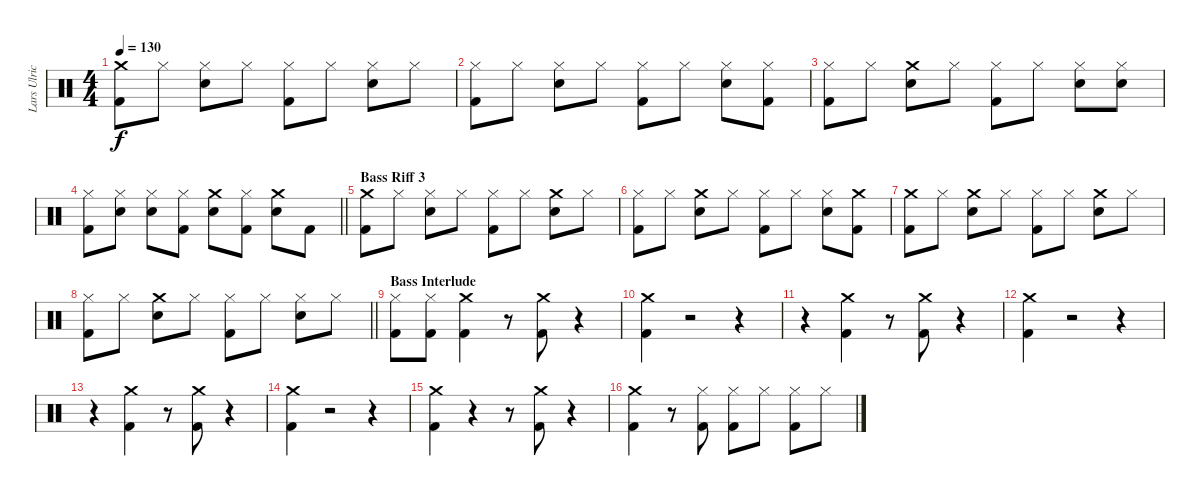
\track ("Lars Ulrich (Drums)" "Lars Ulric") {instrument percussion}
\staff {score}
\articulation defaults
\ts (4 4)
\tempo 130
\clef neutral
\ks c
("Crash medium (hit)" "Kick (hit) 2").8{dy f} "Hi-Hat (closed)".8 ("Snare (hit) 2" "Hi-Hat (closed)").8 "Hi-Hat (closed)".8 ("Kick (hit) 2" "Hi-Hat (closed)").8 "Hi-Hat (closed)".8 ("Snare (hit) 2" "Hi-Hat (closed)").8 "Hi-Hat (closed)".8 |
("Kick (hit) 2" "Hi-Hat (closed)").8 "Hi-Hat (closed)".8 ("Snare (hit) 2" "Hi-Hat (closed)").8 "Hi-Hat (closed)".8 ("Kick (hit) 2" "Hi-Hat (closed)").8 "Hi-Hat (closed)".8 ("Snare (hit) 2" "Hi-Hat (closed)").8 ("Kick (hit) 2" "Hi-Hat (closed)").8 |
("Kick (hit) 2" "Hi-Hat (closed)").8 "Hi-Hat (closed)".8 ("Crash medium (hit)" "Snare (hit) 2").8 "Hi-Hat (closed)".8 ("Kick (hit) 2" "Hi-Hat (closed)").8 "Hi-Hat (closed)".8 ("Snare (hit) 2" "Hi-Hat (closed)").8 ("Snare (hit) 2" "Hi-Hat (closed)").8 |
\barLineRight lightlight
("Kick (hit) 2" "Hi-Hat (closed)").8 ("Snare (hit) 2" "Hi-Hat (closed)").8 ("Snare (hit) 2" "Hi-Hat (closed)").8 ("Kick (hit) 2" "Hi-Hat (closed)").8 ("Crash medium (hit)" "Snare (hit) 2").8 ("Kick (hit) 2" "Hi-Hat (closed)").8 ("Crash medium (hit)" "Snare (hit) 2").8 "Kick (hit) 2".8 |
\section ("" "Bass Riff 3")
("Crash medium (hit)" "Kick (hit) 2").8 "Hi-Hat (closed)".8 ("Snare (hit) 2" "Hi-Hat (closed)").8 "Hi-Hat (closed)".8 ("Kick (hit) 2" "Hi-Hat (closed)").8 "Hi-Hat (closed)".8 ("Crash medium (hit)" "Snare (hit) 2").8 "Hi-Hat (closed)".8 |
("Kick (hit) 2" "Hi-Hat (closed)").8 "Hi-Hat (closed)".8 ("Crash medium (hit)" "Snare (hit) 2").8 "Hi-Hat (closed)".8 ("Kick (hit) 2" "Hi-Hat (closed)").8 "Hi-Hat (closed)".8 ("Snare (hit) 2" "Hi-Hat (closed)").8 ("Crash medium (hit)" "Kick (hit) 2").8 |
("Crash medium (hit)" "Kick (hit) 2").8 "Hi-Hat (closed)".8 ("Crash medium (hit)" "Snare (hit) 2").8 "Hi-Hat (closed)".8 ("Kick (hit) 2" "Hi-Hat (closed)").8 "Hi-Hat (closed)".8 ("Crash medium (hit)" "Snare (hit) 2").8 "Hi-Hat (closed)".8 |
\barLineRight lightlight
("Hi-Hat (closed)" "Kick (hit) 2").8 "Hi-Hat (closed)".8 ("Crash medium (hit)" "Snare (hit) 2").8 "Hi-Hat (closed)".8 ("Hi-Hat (closed)" "Kick (hit) 2").8 "Hi-Hat (closed)".8 ("Snare (hit) 2" "Hi-Hat (closed)").8 "Hi-Hat (closed)".8 |
\section ("" "Bass Interlude")
("Kick (hit) 2" "Hi-Hat (closed)").8 ("Kick (hit) 2" "Hi-Hat (closed)").8 ("Kick (hit) 2" "Crash medium (hit)").4 r.8 ("Kick (hit) 2" "Crash medium (hit)").8 r.4 |
("Crash medium (hit)" "Kick (hit) 2").4 r.2 r.4 |
r.4 ("Kick (hit) 2" "Crash medium (hit)").4 r.8 ("Kick (hit) 2" "Crash medium (hit)").8 r.4 |
("Crash medium (hit)" "Kick (hit) 2").4 r.2 r.4 |
r.4 ("Kick (hit) 2" "Crash medium (hit)").4 r.8 ("Kick (hit) 2" "Crash medium (hit)").8 r.4 |
("Kick (hit) 2" "Crash medium (hit)").4 r.2 r.4 |
("Kick (hit) 2" "Crash medium (hit)").4 r.4 r.8 ("Kick (hit) 2" "Crash medium (hit)").8 r.4 |
("Crash medium (hit)" "Kick (hit) 2").4 r.8 ("Hi-Hat (closed)" "Kick (hit) 2").8 ("Hi-Hat (closed)" "Kick (hit) 2").8 "Hi-Hat (closed)".8 ("Hi-Hat (closed)" "Kick (hit) 2").8 "Hi-Hat (closed)".8
